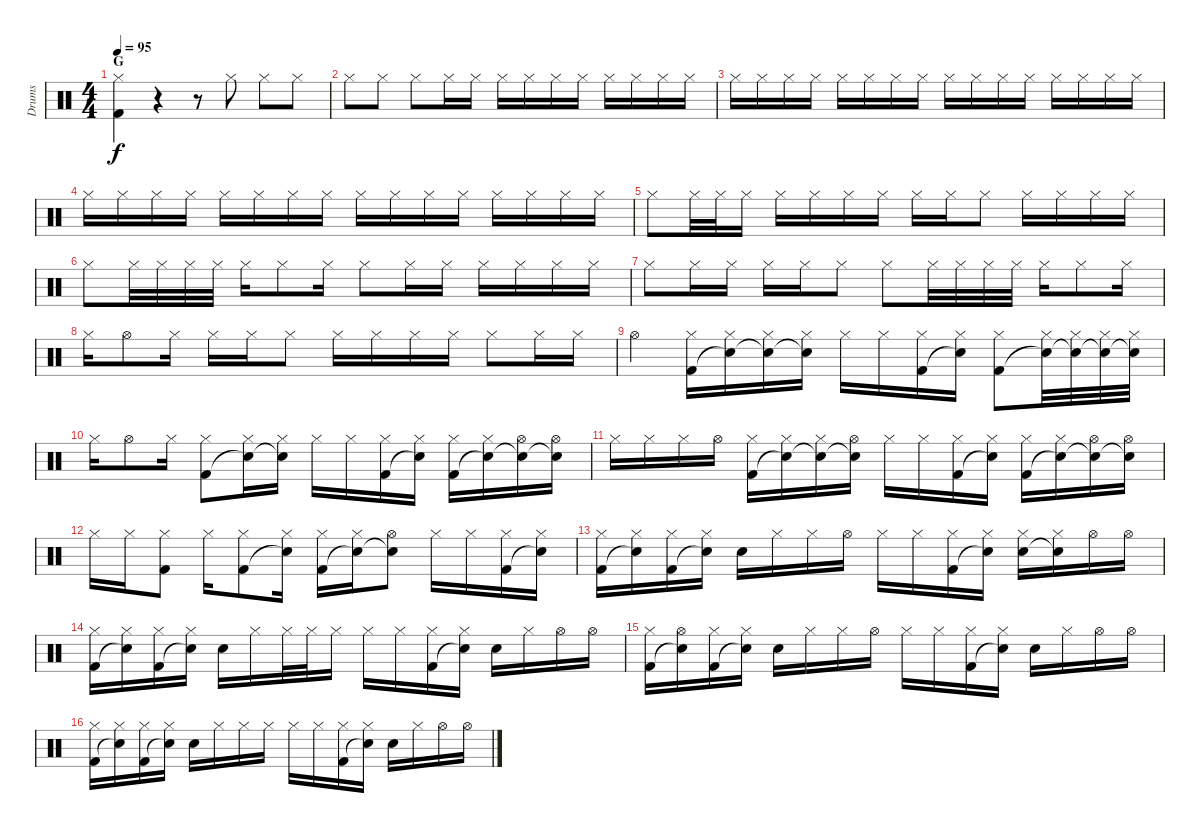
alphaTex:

\track ("Drums" "Drums") {instrument percussion}
\staff {score}
\articulation defaults
\ts (4 4)
\section ("" "G")
\tempo 95
\clef neutral
\ks c
("Hi-Hat (closed)" "Kick (hit) 2").4{dy f} r.4 r.8 "Hi-Hat (closed)".8 "Hi-Hat (closed)".8 "Hi-Hat (closed)".8 |
"Hi-Hat (closed)".8 "Hi-Hat (closed)".8 "Hi-Hat (closed)".8 "Hi-Hat (closed)".16 "Hi-Hat (closed)".16 "Hi-Hat (closed)".16 "Hi-Hat (closed)".16 "Hi-Hat (closed)".16 "Hi-Hat (closed)".16 "Hi-Hat (closed)".16 "Hi-Hat (closed)".16 "Hi-Hat (closed)".16 "Hi-Hat (closed)".16 |
"Hi-Hat (closed)".16 "Hi-Hat (closed)".16 "Hi-Hat (closed)".16 "Hi-Hat (closed)".16 "Hi-Hat (closed)".16 "Hi-Hat (closed)".16 "Hi-Hat (closed)".16 "Hi-Hat (closed)".16 "Hi-Hat (closed)".16 "Hi-Hat (closed)".16 "Hi-Hat (closed)".16 "Hi-Hat (closed)".16 "Hi-Hat (closed)".16 "Hi-Hat (closed)".16 "Hi-Hat (closed)".16 "Hi-Hat (closed)".16 |
"Hi-Hat (closed)".16 "Hi-Hat (closed)".16 "Hi-Hat (closed)".16 "Hi-Hat (closed)".16 "Hi-Hat (closed)".16 "Hi-Hat (closed)".16 "Hi-Hat (closed)".16 "Hi-Hat (closed)".16 "Hi-Hat (closed)".16 "Hi-Hat (closed)".16 "Hi-Hat (closed)".16 "Hi-Hat (closed)".16 "Hi-Hat (closed)".16 "Hi-Hat (closed)".16 "Hi-Hat (closed)".16 "Hi-Hat (closed)".16 |
"Hi-Hat (closed)".8 "Hi-Hat (closed)".32 "Hi-Hat (closed)".32 "Hi-Hat (closed)".16 "Hi-Hat (closed)".16 "Hi-Hat (closed)".16 "Hi-Hat (closed)".16 "Hi-Hat (closed)".16 "Hi-Hat (closed)".16 "Hi-Hat (closed)".16 "Hi-Hat (closed)".8 "Hi-Hat (closed)".16 "Hi-Hat (closed)".16 "Hi-Hat (closed)".16 "Hi-Hat (closed)".16 |
"Hi-Hat (closed)".8 "Hi-Hat (closed)".32 "Hi-Hat (closed)".32 "Hi-Hat (closed)".32 "Hi-Hat (closed)".32 "Hi-Hat (closed)".16 "Hi-Hat (closed)".8 "Hi-Hat (closed)".16 "Hi-Hat (closed)".8 "Hi-Hat (closed)".16 "Hi-Hat (closed)".16 "Hi-Hat (closed)".16 "Hi-Hat (closed)".16 "Hi-Hat (closed)".16 "Hi-Hat (closed)".16 |
"Hi-Hat (closed)".8 "Hi-Hat (closed)".16 "Hi-Hat (closed)".16 "Hi-Hat (closed)".16 "Hi-Hat (closed)".16 "Hi-Hat (closed)".8 "Hi-Hat (closed)".8 "Hi-Hat (closed)".32 "Hi-Hat (closed)".32 "Hi-Hat (closed)".32 "Hi-Hat (closed)".32 "Hi-Hat (closed)".16 "Hi-Hat (closed)".8 "Hi-Hat (closed)".16 |
"Hi-Hat (closed)".16 "Hi-Hat (open)".8 "Hi-Hat (closed)".16 "Hi-Hat (closed)".16 "Hi-Hat (closed)".16 "Hi-Hat (closed)".8 "Hi-Hat (closed)".16 "Hi-Hat (closed)".16 "Hi-Hat (closed)".16 "Hi-Hat (closed)".16 "Hi-Hat (closed)".8 "Hi-Hat (closed)".16 "Hi-Hat (closed)".16 |
"Hi-Hat (open)".4 ("Hi-Hat (closed)" "Kick (hit) 2").16 ("Hi-Hat (closed)" "Snare (hit)"{t}).16 ("Hi-Hat (closed)" "Snare (hit)"{t}).16 ("Hi-Hat (closed)" "Snare (hit)"{t}).16 "Hi-Hat (closed)".16 "Hi-Hat (closed)".16 ("Hi-Hat (closed)" "Kick (hit) 2").16 ("Hi-Hat (closed)" "Snare (hit)"{t}).16 ("Hi-Hat (closed)" "Kick (hit) 2").8 ("Hi-Hat (closed)" "Snare (hit)"{t}).32 ("Hi-Hat (closed)" "Snare (hit)"{t}).32 ("Hi-Hat (closed)" "Snare (hit)"{t}).32 ("Hi-Hat (closed)" "Snare (hit)"{t}).32 |
"Hi-Hat (closed)".16 "Hi-Hat (open)".8 "Hi-Hat (closed)".16 ("Hi-Hat (closed)" "Kick (hit) 2").8 ("Hi-Hat (closed)" "Snare (hit)"{t}).16 ("Hi-Hat (closed)" "Snare (hit)"{t}).16 "Hi-Hat (closed)".16 "Hi-Hat (closed)".16 ("Hi-Hat (closed)" "Kick (hit) 2").16 ("Hi-Hat (closed)" "Snare (hit)"{t}).16 ("Hi-Hat (closed)" "Kick (hit) 2").16 ("Hi-Hat (closed)" "Snare (hit)"{t}).16 ("Hi-Hat (open)" "Snare (hit)"{t}).16 ("Hi-Hat (open)" "Snare (hit)"{t}).16 |
"Hi-Hat (closed)".16 "Hi-Hat (closed)".16 "Hi-Hat (closed)".16 "Hi-Hat (open)".16 ("Hi-Hat (closed)" "Kick (hit) 2").16 ("Hi-Hat (closed)" "Snare (hit)"{t}).16 ("Hi-Hat (closed)" "Snare (hit)"{t}).16 ("Hi-Hat (open)" "Snare (hit)"{t}).16 "Hi-Hat (closed)".16 "Hi-Hat (closed)".16 ("Hi-Hat (closed)" "Kick (hit) 2").16 ("Hi-Hat (closed)" "Snare (hit)"{t}).16 ("Hi-Hat (closed)" "Kick (hit) 2").16 ("Hi-Hat (closed)" "Snare (hit)"{t}).16 ("Hi-Hat (open)" "Snare (hit)"{t}).16 ("Hi-Hat (open)" "Snare (hit)"{t}).16 |
"Hi-Hat (closed)".16 "Hi-Hat (closed)".16 ("Hi-Hat (closed)" "Kick (hit) 2").8 "Hi-Hat (closed)".16 ("Hi-Hat (closed)" "Kick (hit) 2").8 ("Hi-Hat (closed)" "Snare (hit)"{t}).16 ("Hi-Hat (closed)" "Kick (hit) 2").16 ("Hi-Hat (closed)" "Snare (hit)"{t}).16 ("Hi-Hat (open)" "Snare (hit)"{t}).8 "Hi-Hat (closed)".16 "Hi-Hat (closed)".16 ("Hi-Hat (closed)" "Kick (hit) 2").16 ("Hi-Hat (closed)" "Snare (hit)"{t}).16 |
("Hi-Hat (closed)" "Kick (hit) 2").16 ("Hi-Hat (closed)" "Snare (hit)"{t}).16 ("Hi-Hat (closed)" "Kick (hit) 2").16 ("Hi-Hat (closed)" "Snare (hit)"{t}).16 "Snare (hit) 2".16 "Hi-Hat (closed)".16 "Hi-Hat (closed)".16 "Hi-Hat (open)".16 "Hi-Hat (closed)".16 "Hi-Hat (closed)".16 ("Hi-Hat (closed)" "Kick (hit) 2").16 ("Hi-Hat (closed)" "Snare (hit)"{t}).16 ("Hi-Hat (closed)" "Snare (hit) 2").16 ("Hi-Hat (closed)" "Snare (hit)"{t}).16 "Hi-Hat (open)".16 "Hi-Hat (open)".16 |
("Hi-Hat (closed)" "Kick (hit) 2").16 ("Hi-Hat (closed)" "Snare (hit)"{t}).16 ("Hi-Hat (closed)" "Kick (hit) 2").16 ("Hi-Hat (closed)" "Snare (hit)"{t}).16 "Snare (hit) 2".16 "Hi-Hat (closed)".16 "Hi-Hat (closed)".32 "Hi-Hat (closed)".32 "Hi-Hat (closed)".16 "Hi-Hat (closed)".16 "Hi-Hat (closed)".16 ("Hi-Hat (closed)" "Kick (hit) 2").16 ("Hi-Hat (closed)" "Snare (hit)"{t}).16 "Snare (hit) 2".16 "Hi-Hat (closed)".16 "Hi-Hat (open)".16 "Hi-Hat (open)".16 |
("Hi-Hat (closed)" "Kick (hit) 2").16 ("Hi-Hat (open)" "Snare (hit)"{t}).16 ("Hi-Hat (closed)" "Kick (hit) 2").16 ("Hi-Hat (closed)" "Snare (hit)"{t}).16 "Snare (hit) 2".16 "Hi-Hat (closed)".16 "Hi-Hat (closed)".16 "Hi-Hat (open)".16 "Hi-Hat (closed)".16 "Hi-Hat (closed)".16 ("Hi-Hat (closed)" "Kick (hit) 2").16 ("Hi-Hat (closed)" "Snare (hit)"{t}).16 "Snare (hit) 2".16 "Hi-Hat (closed)".16 "Hi-Hat (open)".16 "Hi-Hat (open)".16 |
("Hi-Hat (closed)" "Kick (hit) 2").16 ("Hi-Hat (closed)" "Snare (hit)"{t}).16 ("Hi-Hat (closed)" "Kick (hit) 2").16 ("Hi-Hat (closed)" "Snare (hit)"{t}).16 "Snare (hit) 2".16 "Hi-Hat (closed)".16 "Hi-Hat (closed)".16 "Hi-Hat (closed)".16 "Hi-Hat (closed)".16 "Hi-Hat (closed)".16 ("Hi-Hat (closed)" "Kick (hit) 2").16 ("Hi-Hat (closed)" "Snare (hit)"{t}).16 "Snare (hit) 2".16 "Hi-Hat (closed)".16 "Hi-Hat (open)".16 "Hi-Hat (open)".16
